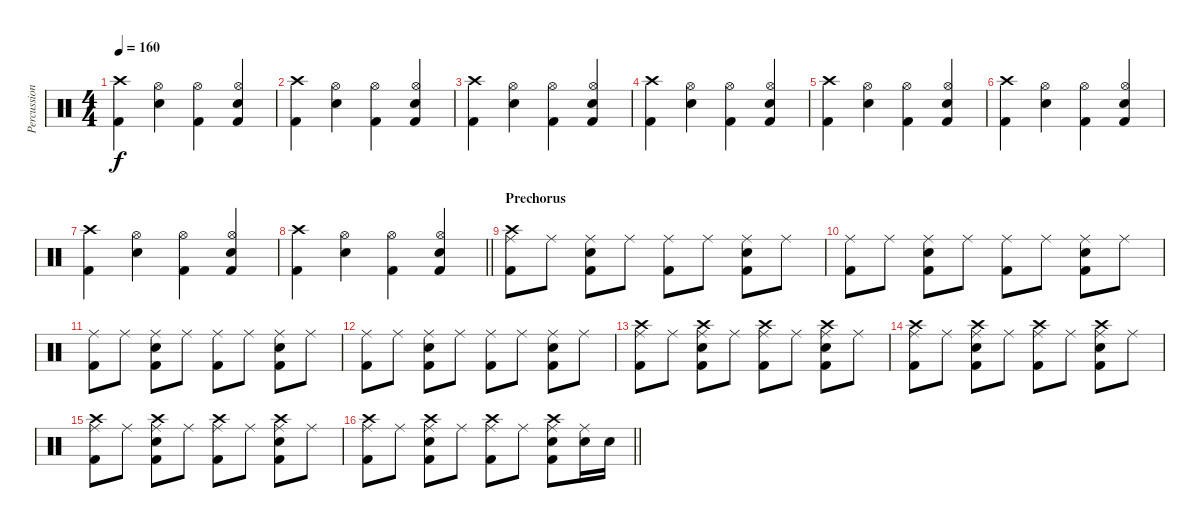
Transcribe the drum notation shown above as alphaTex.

\track ("Percussion" "Percussion") {instrument percussion}
\staff {score}
\articulation defaults
\ts (4 4)
\tempo 160
\clef neutral
\ks c
("Crash high (hit)" "Kick (hit) 2").4{dy f} ("Hi-Hat (open)" "Snare (hit) 2").4 ("Hi-Hat (open)" "Kick (hit) 2").4 ("Hi-Hat (open)" "Snare (hit) 2" "Kick (hit) 2").4 |
("Crash high (hit)" "Kick (hit) 2").4 ("Hi-Hat (open)" "Snare (hit) 2").4 ("Hi-Hat (open)" "Kick (hit) 2").4 ("Hi-Hat (open)" "Snare (hit) 2" "Kick (hit) 2").4 |
("Crash high (hit)" "Kick (hit) 2").4 ("Hi-Hat (open)" "Snare (hit) 2").4 ("Hi-Hat (open)" "Kick (hit) 2").4 ("Hi-Hat (open)" "Snare (hit) 2" "Kick (hit) 2").4 |
("Crash high (hit)" "Kick (hit) 2").4 ("Hi-Hat (open)" "Snare (hit) 2").4 ("Hi-Hat (open)" "Kick (hit) 2").4 ("Hi-Hat (open)" "Snare (hit) 2" "Kick (hit) 2").4 |
("Crash high (hit)" "Kick (hit) 2").4 ("Hi-Hat (open)" "Snare (hit) 2").4 ("Hi-Hat (open)" "Kick (hit) 2").4 ("Hi-Hat (open)" "Snare (hit) 2" "Kick (hit) 2").4 |
("Crash high (hit)" "Kick (hit) 2").4 ("Hi-Hat (open)" "Snare (hit) 2").4 ("Hi-Hat (open)" "Kick (hit) 2").4 ("Hi-Hat (open)" "Snare (hit) 2" "Kick (hit) 2").4 |
("Crash high (hit)" "Kick (hit) 2").4 ("Hi-Hat (open)" "Snare (hit) 2").4 ("Hi-Hat (open)" "Kick (hit) 2").4 ("Hi-Hat (open)" "Snare (hit) 2" "Kick (hit) 2").4 |
\barLineRight lightlight
("Crash high (hit)" "Kick (hit) 2").4 ("Hi-Hat (open)" "Snare (hit) 2").4 ("Hi-Hat (open)" "Kick (hit) 2").4 ("Hi-Hat (open)" "Snare (hit) 2" "Kick (hit) 2").4 |
\section ("" "Prechorus")
("Ride (middle)" "Crash high (hit)" "Kick (hit) 2").8 "Ride (middle)".8 ("Ride (middle)" "Snare (hit) 2" "Kick (hit) 2").8 "Ride (middle)".8 ("Ride (middle)" "Kick (hit) 2").8 "Ride (middle)".8 ("Ride (middle)" "Snare (hit) 2" "Kick (hit) 2").8 "Ride (middle)".8 |
("Ride (middle)" "Kick (hit) 2").8 "Ride (middle)".8 ("Ride (middle)" "Snare (hit) 2" "Kick (hit) 2").8 "Ride (middle)".8 ("Ride (middle)" "Kick (hit) 2").8 "Ride (middle)".8 ("Ride (middle)" "Snare (hit) 2" "Kick (hit) 2").8 "Ride (middle)".8 |
("Ride (middle)" "Kick (hit) 2").8 "Ride (middle)".8 ("Ride (middle)" "Snare (hit) 2" "Kick (hit) 2").8 "Ride (middle)".8 ("Ride (middle)" "Kick (hit) 2").8 "Ride (middle)".8 ("Ride (middle)" "Snare (hit) 2" "Kick (hit) 2").8 "Ride (middle)".8 |
("Ride (middle)" "Kick (hit) 2").8 "Ride (middle)".8 ("Ride (middle)" "Snare (hit) 2" "Kick (hit) 2").8 "Ride (middle)".8 ("Ride (middle)" "Kick (hit) 2").8 "Ride (middle)".8 ("Ride (middle)" "Snare (hit) 2" "Kick (hit) 2").8 "Ride (middle)".8 |
("Ride (middle)" "Crash high (hit)" "Kick (hit) 2").8 "Ride (middle)".8 ("Ride (middle)" "Crash high (hit)" "Snare (hit) 2" "Kick (hit) 2").8 "Ride (middle)".8 ("Ride (middle)" "Crash high (hit)" "Kick (hit) 2").8 "Ride (middle)".8 ("Ride (middle)" "Crash high (hit)" "Snare (hit) 2" "Kick (hit) 2").8 "Ride (middle)".8 |
("Ride (middle)" "Crash high (hit)" "Kick (hit) 2").8 "Ride (middle)".8 ("Ride (middle)" "Crash high (hit)" "Snare (hit) 2" "Kick (hit) 2").8 "Ride (middle)".8 ("Ride (middle)" "Crash high (hit)" "Kick (hit) 2").8 "Ride (middle)".8 ("Ride (middle)" "Crash high (hit)" "Snare (hit) 2" "Kick (hit) 2").8 "Ride (middle)".8 |
("Ride (middle)" "Crash high (hit)" "Kick (hit) 2").8 "Ride (middle)".8 ("Ride (middle)" "Crash high (hit)" "Snare (hit) 2" "Kick (hit) 2").8 "Ride (middle)".8 ("Ride (middle)" "Crash high (hit)" "Kick (hit) 2").8 "Ride (middle)".8 ("Ride (middle)" "Crash high (hit)" "Snare (hit) 2" "Kick (hit) 2").8 "Ride (middle)".8 |
\barLineRight lightlight
("Ride (middle)" "Crash high (hit)" "Kick (hit) 2").8 "Ride (middle)".8 ("Ride (middle)" "Crash high (hit)" "Snare (hit) 2" "Kick (hit) 2").8 "Ride (middle)".8 ("Ride (middle)" "Crash high (hit)" "Kick (hit) 2").8 "Ride (middle)".8 ("Ride (middle)" "Crash high (hit)" "Snare (hit) 2" "Kick (hit) 2").8 ("Ride (middle)" "Snare (hit) 2").16 "Snare (hit) 2".16
